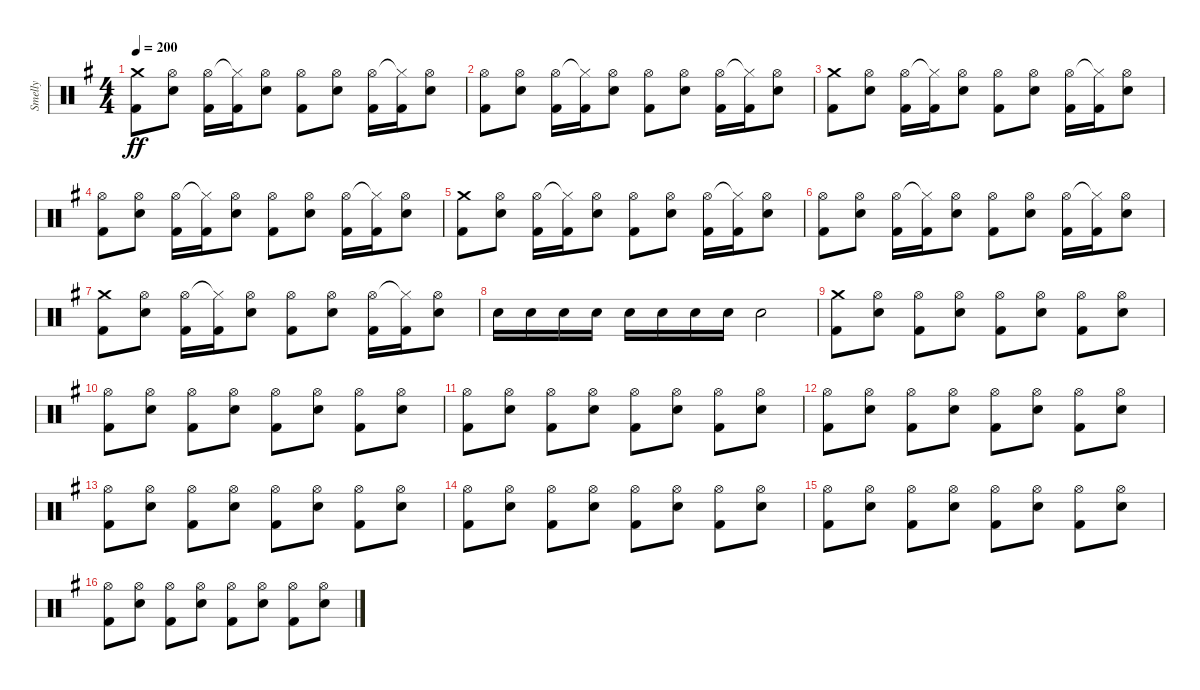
\track ("Smelly" "Smelly") {instrument percussion}
\staff {score}
\articulation defaults
\ts (4 4)
\tempo 200
\clef neutral
\ks eminor
("Crash medium (hit)" "Kick (hit) 2").8{dy ff} ("Hi-Hat (open)" "Electric Snare (hit)").8 ("Hi-Hat (open)" "Kick (hit) 2").16 ("Hi-Hat (closed)"{t} "Kick (hit) 2").16 ("Hi-Hat (open)" "Electric Snare (hit)").8 ("Hi-Hat (open)" "Kick (hit) 2").8 ("Hi-Hat (open)" "Electric Snare (hit)").8 ("Hi-Hat (open)" "Kick (hit) 2").16 ("Hi-Hat (closed)"{t} "Kick (hit) 2").16 ("Hi-Hat (open)" "Electric Snare (hit)").8 |
("Hi-Hat (open)" "Kick (hit) 2").8 ("Hi-Hat (open)" "Electric Snare (hit)").8 ("Hi-Hat (open)" "Kick (hit) 2").16 ("Hi-Hat (closed)"{t} "Kick (hit) 2").16 ("Hi-Hat (open)" "Electric Snare (hit)").8 ("Hi-Hat (open)" "Kick (hit) 2").8 ("Hi-Hat (open)" "Electric Snare (hit)").8 ("Hi-Hat (open)" "Kick (hit) 2").16 ("Hi-Hat (closed)"{t} "Kick (hit) 2").16 ("Hi-Hat (open)" "Electric Snare (hit)").8 |
("Crash medium (hit)" "Kick (hit) 2").8 ("Hi-Hat (open)" "Electric Snare (hit)").8 ("Hi-Hat (open)" "Kick (hit) 2").16 ("Hi-Hat (closed)"{t} "Kick (hit) 2").16 ("Hi-Hat (open)" "Electric Snare (hit)").8 ("Hi-Hat (open)" "Kick (hit) 2").8 ("Hi-Hat (open)" "Electric Snare (hit)").8 ("Hi-Hat (open)" "Kick (hit) 2").16 ("Hi-Hat (closed)"{t} "Kick (hit) 2").16 ("Hi-Hat (open)" "Electric Snare (hit)").8 |
("Hi-Hat (open)" "Kick (hit) 2").8 ("Hi-Hat (open)" "Electric Snare (hit)").8 ("Hi-Hat (open)" "Kick (hit) 2").16 ("Hi-Hat (closed)"{t} "Kick (hit) 2").16 ("Hi-Hat (open)" "Electric Snare (hit)").8 ("Hi-Hat (open)" "Kick (hit) 2").8 ("Hi-Hat (open)" "Electric Snare (hit)").8 ("Hi-Hat (open)" "Kick (hit) 2").16 ("Hi-Hat (closed)"{t} "Kick (hit) 2").16 ("Hi-Hat (open)" "Electric Snare (hit)").8 |
("Crash medium (hit)" "Kick (hit) 2").8 ("Hi-Hat (open)" "Electric Snare (hit)").8 ("Hi-Hat (open)" "Kick (hit) 2").16 ("Hi-Hat (closed)"{t} "Kick (hit) 2").16 ("Hi-Hat (open)" "Electric Snare (hit)").8 ("Hi-Hat (open)" "Kick (hit) 2").8 ("Hi-Hat (open)" "Electric Snare (hit)").8 ("Hi-Hat (open)" "Kick (hit) 2").16 ("Hi-Hat (closed)"{t} "Kick (hit) 2").16 ("Hi-Hat (open)" "Electric Snare (hit)").8 |
("Hi-Hat (open)" "Kick (hit) 2").8 ("Hi-Hat (open)" "Electric Snare (hit)").8 ("Hi-Hat (open)" "Kick (hit) 2").16 ("Hi-Hat (closed)"{t} "Kick (hit) 2").16 ("Hi-Hat (open)" "Electric Snare (hit)").8 ("Hi-Hat (open)" "Kick (hit) 2").8 ("Hi-Hat (open)" "Electric Snare (hit)").8 ("Hi-Hat (open)" "Kick (hit) 2").16 ("Hi-Hat (closed)"{t} "Kick (hit) 2").16 ("Hi-Hat (open)" "Electric Snare (hit)").8 |
("Crash medium (hit)" "Kick (hit) 2").8 ("Hi-Hat (open)" "Electric Snare (hit)").8 ("Hi-Hat (open)" "Kick (hit) 2").16 ("Hi-Hat (closed)"{t} "Kick (hit) 2").16 ("Hi-Hat (open)" "Electric Snare (hit)").8 ("Hi-Hat (open)" "Kick (hit) 2").8 ("Hi-Hat (open)" "Electric Snare (hit)").8 ("Hi-Hat (open)" "Kick (hit) 2").16 ("Hi-Hat (closed)"{t} "Kick (hit) 2").16 ("Hi-Hat (open)" "Electric Snare (hit)").8 |
"Electric Snare (hit)".16 "Electric Snare (hit)".16 "Electric Snare (hit)".16 "Electric Snare (hit)".16 "Electric Snare (hit)".16 "Electric Snare (hit)".16 "Electric Snare (hit)".16 "Electric Snare (hit)".16 "Electric Snare (hit)".2 |
("Crash medium (hit)" "Kick (hit) 2").8 ("Hi-Hat (open)" "Electric Snare (hit)").8 ("Hi-Hat (open)" "Kick (hit) 2").8 ("Hi-Hat (open)" "Electric Snare (hit)").8 ("Hi-Hat (open)" "Kick (hit) 2").8 ("Hi-Hat (open)" "Electric Snare (hit)").8 ("Hi-Hat (open)" "Kick (hit) 2").8 ("Hi-Hat (open)" "Electric Snare (hit)").8 |
("Hi-Hat (open)" "Kick (hit) 2").8 ("Hi-Hat (open)" "Electric Snare (hit)").8 ("Hi-Hat (open)" "Kick (hit) 2").8 ("Hi-Hat (open)" "Electric Snare (hit)").8 ("Hi-Hat (open)" "Kick (hit) 2").8 ("Hi-Hat (open)" "Electric Snare (hit)").8 ("Hi-Hat (open)" "Kick (hit) 2").8 ("Hi-Hat (open)" "Electric Snare (hit)").8 |
("Hi-Hat (open)" "Kick (hit) 2").8 ("Hi-Hat (open)" "Electric Snare (hit)").8 ("Hi-Hat (open)" "Kick (hit) 2").8 ("Hi-Hat (open)" "Electric Snare (hit)").8 ("Hi-Hat (open)" "Kick (hit) 2").8 ("Hi-Hat (open)" "Electric Snare (hit)").8 ("Hi-Hat (open)" "Kick (hit) 2").8 ("Hi-Hat (open)" "Electric Snare (hit)").8 |
("Hi-Hat (open)" "Kick (hit) 2").8 ("Hi-Hat (open)" "Electric Snare (hit)").8 ("Hi-Hat (open)" "Kick (hit) 2").8 ("Hi-Hat (open)" "Electric Snare (hit)").8 ("Hi-Hat (open)" "Kick (hit) 2").8 ("Hi-Hat (open)" "Electric Snare (hit)").8 ("Hi-Hat (open)" "Kick (hit) 2").8 ("Hi-Hat (open)" "Electric Snare (hit)").8 |
("Hi-Hat (open)" "Kick (hit) 2").8 ("Hi-Hat (open)" "Electric Snare (hit)").8 ("Hi-Hat (open)" "Kick (hit) 2").8 ("Hi-Hat (open)" "Electric Snare (hit)").8 ("Hi-Hat (open)" "Kick (hit) 2").8 ("Hi-Hat (open)" "Electric Snare (hit)").8 ("Hi-Hat (open)" "Kick (hit) 2").8 ("Hi-Hat (open)" "Electric Snare (hit)").8 |
("Hi-Hat (open)" "Kick (hit) 2").8 ("Hi-Hat (open)" "Electric Snare (hit)").8 ("Hi-Hat (open)" "Kick (hit) 2").8 ("Hi-Hat (open)" "Electric Snare (hit)").8 ("Hi-Hat (open)" "Kick (hit) 2").8 ("Hi-Hat (open)" "Electric Snare (hit)").8 ("Hi-Hat (open)" "Kick (hit) 2").8 ("Hi-Hat (open)" "Electric Snare (hit)").8 |
("Hi-Hat (open)" "Kick (hit) 2").8 ("Hi-Hat (open)" "Electric Snare (hit)").8 ("Hi-Hat (open)" "Kick (hit) 2").8 ("Hi-Hat (open)" "Electric Snare (hit)").8 ("Hi-Hat (open)" "Kick (hit) 2").8 ("Hi-Hat (open)" "Electric Snare (hit)").8 ("Hi-Hat (open)" "Kick (hit) 2").8 ("Hi-Hat (open)" "Electric Snare (hit)").8 |
("Hi-Hat (open)" "Kick (hit) 2").8 ("Hi-Hat (open)" "Electric Snare (hit)").8 ("Hi-Hat (open)" "Kick (hit) 2").8 ("Hi-Hat (open)" "Electric Snare (hit)").8 ("Hi-Hat (open)" "Kick (hit) 2").8 ("Hi-Hat (open)" "Electric Snare (hit)").8 ("Hi-Hat (open)" "Kick (hit) 2").8 ("Hi-Hat (open)" "Electric Snare (hit)").8
